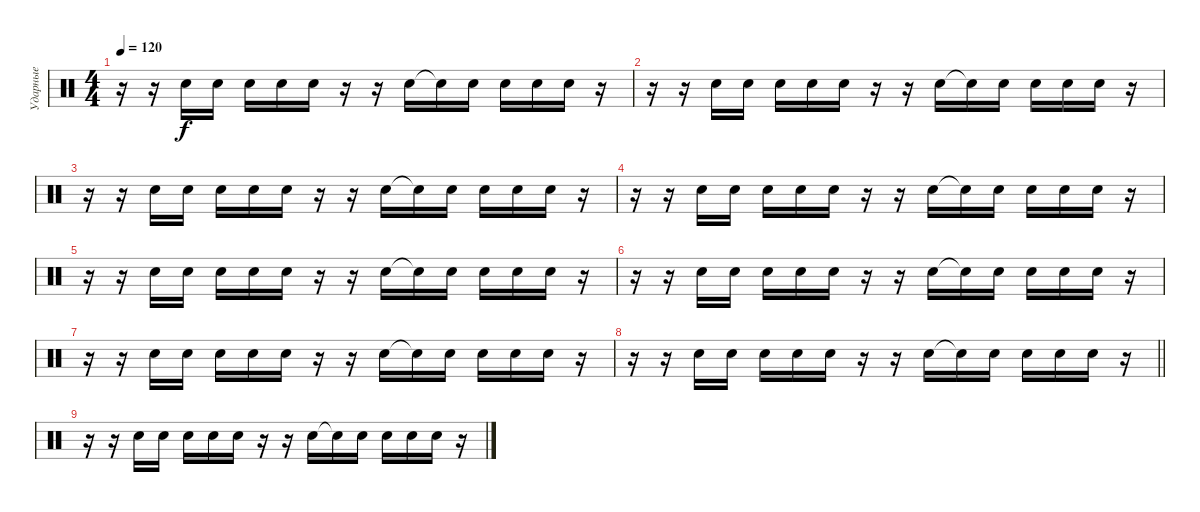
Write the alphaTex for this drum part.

\track ("Ударные" "Ударные") {instrument percussion}
\staff {score}
\articulation defaults
\ts (4 4)
\tempo 120
\clef neutral
\ks c
r.16{dy f} r.16 "Hand Clap (hit)".16 "Hand Clap (hit)".16 "Hand Clap (hit)".16 "Hand Clap (hit)".16 "Hand Clap (hit)".16 r.16 r.16 "Hand Clap (hit)".16 "Hand Clap (hit)"{t}.16 "Hand Clap (hit)".16 "Hand Clap (hit)".16 "Hand Clap (hit)".16 "Hand Clap (hit)".16 r.16 |
r.16 r.16 "Hand Clap (hit)".16 "Hand Clap (hit)".16 "Hand Clap (hit)".16 "Hand Clap (hit)".16 "Hand Clap (hit)".16 r.16 r.16 "Hand Clap (hit)".16 "Hand Clap (hit)"{t}.16 "Hand Clap (hit)".16 "Hand Clap (hit)".16 "Hand Clap (hit)".16 "Hand Clap (hit)".16 r.16 |
r.16 r.16 "Hand Clap (hit)".16 "Hand Clap (hit)".16 "Hand Clap (hit)".16 "Hand Clap (hit)".16 "Hand Clap (hit)".16 r.16 r.16 "Hand Clap (hit)".16 "Hand Clap (hit)"{t}.16 "Hand Clap (hit)".16 "Hand Clap (hit)".16 "Hand Clap (hit)".16 "Hand Clap (hit)".16 r.16 |
r.16 r.16 "Hand Clap (hit)".16 "Hand Clap (hit)".16 "Hand Clap (hit)".16 "Hand Clap (hit)".16 "Hand Clap (hit)".16 r.16 r.16 "Hand Clap (hit)".16 "Hand Clap (hit)"{t}.16 "Hand Clap (hit)".16 "Hand Clap (hit)".16 "Hand Clap (hit)".16 "Hand Clap (hit)".16 r.16 |
r.16 r.16 "Hand Clap (hit)".16 "Hand Clap (hit)".16 "Hand Clap (hit)".16 "Hand Clap (hit)".16 "Hand Clap (hit)".16 r.16 r.16 "Hand Clap (hit)".16 "Hand Clap (hit)"{t}.16 "Hand Clap (hit)".16 "Hand Clap (hit)".16 "Hand Clap (hit)".16 "Hand Clap (hit)".16 r.16 |
r.16 r.16 "Hand Clap (hit)".16 "Hand Clap (hit)".16 "Hand Clap (hit)".16 "Hand Clap (hit)".16 "Hand Clap (hit)".16 r.16 r.16 "Hand Clap (hit)".16 "Hand Clap (hit)"{t}.16 "Hand Clap (hit)".16 "Hand Clap (hit)".16 "Hand Clap (hit)".16 "Hand Clap (hit)".16 r.16 |
r.16 r.16 "Hand Clap (hit)".16 "Hand Clap (hit)".16 "Hand Clap (hit)".16 "Hand Clap (hit)".16 "Hand Clap (hit)".16 r.16 r.16 "Hand Clap (hit)".16 "Hand Clap (hit)"{t}.16 "Hand Clap (hit)".16 "Hand Clap (hit)".16 "Hand Clap (hit)".16 "Hand Clap (hit)".16 r.16 |
\barLineRight lightlight
r.16 r.16 "Hand Clap (hit)".16 "Hand Clap (hit)".16 "Hand Clap (hit)".16 "Hand Clap (hit)".16 "Hand Clap (hit)".16 r.16 r.16 "Hand Clap (hit)".16 "Hand Clap (hit)"{t}.16 "Hand Clap (hit)".16 "Hand Clap (hit)".16 "Hand Clap (hit)".16 "Hand Clap (hit)".16 r.16 |
r.16 r.16 "Hand Clap (hit)".16 "Hand Clap (hit)".16 "Hand Clap (hit)".16 "Hand Clap (hit)".16 "Hand Clap (hit)".16 r.16 r.16 "Hand Clap (hit)".16 "Hand Clap (hit)"{t}.16 "Hand Clap (hit)".16 "Hand Clap (hit)".16 "Hand Clap (hit)".16 "Hand Clap (hit)".16 r.16
